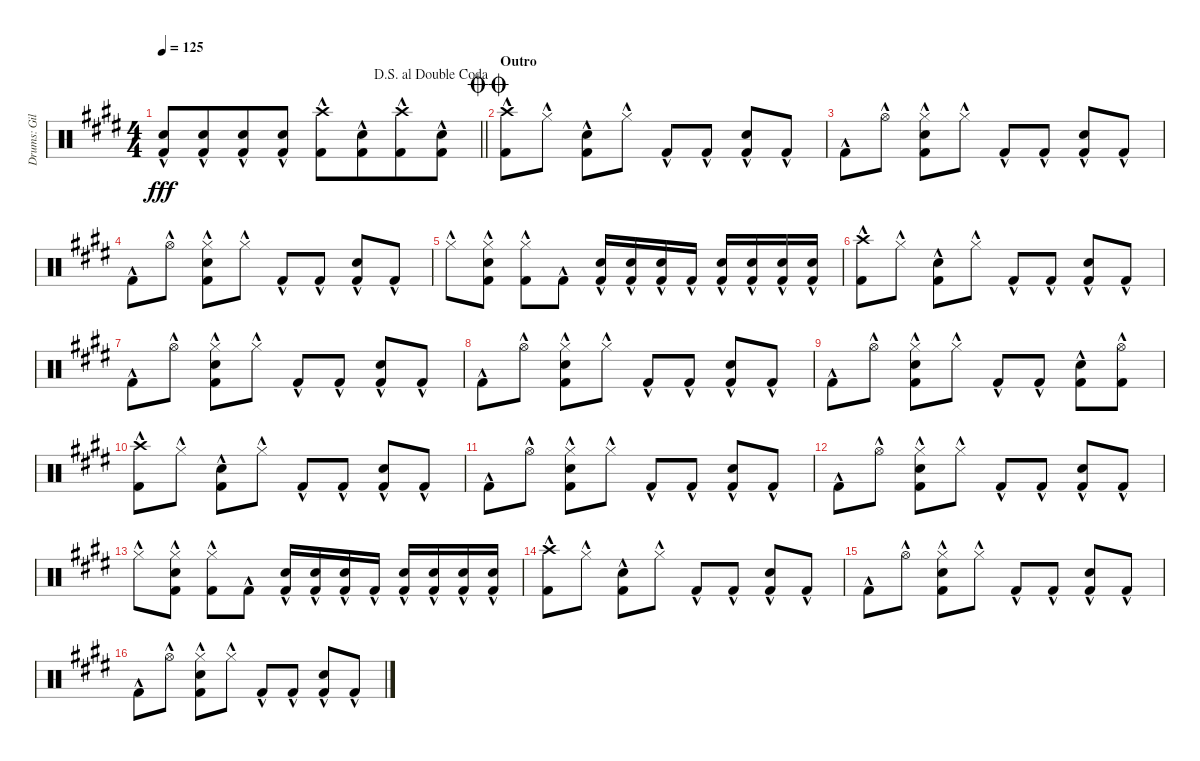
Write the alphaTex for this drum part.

\track ("Drums: Gil" "Drums: Gil") {instrument percussion}
\staff {score}
\articulation defaults
\ts (4 4)
\jump dalsegnoaldoublecoda
\tempo 125
\clef neutral
\barLineRight lightlight
\ks e
("Snare (hit) 2"{hac} "Kick (hit) 2"{hac}).8{dy fff} ("Snare (hit) 2"{hac} "Kick (hit) 2"{hac}).8{beam merge} ("Snare (hit) 2"{hac} "Kick (hit) 2"{hac}).8 ("Snare (hit) 2"{hac} "Kick (hit) 2"{hac}).8 ("Crash high (hit)"{hac} "Kick (hit) 2"{hac}).8 ("Snare (hit) 2"{hac} "Kick (hit) 2"{hac}).8{beam merge} ("Crash high (hit)"{hac} "Kick (hit) 2"{hac}).8 ("Snare (hit) 2"{hac} "Kick (hit) 2"{hac}).8 |
\section ("" "Outro")
\jump doublecoda
("Crash high (hit)"{hac} "Kick (hit) 2"{hac}).8 "Hi-Hat (closed)"{hac}.8 ("Snare (hit) 2"{hac} "Kick (hit) 2"{hac}).8 "Hi-Hat (closed)"{hac}.8 "Kick (hit) 2"{hac}.8 "Kick (hit) 2"{hac}.8 ("Snare (hit) 2"{hac} "Kick (hit) 2"{hac}).8 "Kick (hit) 2"{hac}.8 |
"Kick (hit) 2"{hac}.8 "Hi-Hat (open)"{hac}.8 ("Hi-Hat (closed)"{hac} "Snare (hit) 2"{hac} "Kick (hit) 2"{hac}).8 "Hi-Hat (closed)"{hac}.8 "Kick (hit) 2"{hac}.8 "Kick (hit) 2"{hac}.8 ("Snare (hit) 2"{hac} "Kick (hit) 2"{hac}).8 "Kick (hit) 2"{hac}.8 |
"Kick (hit) 2"{hac}.8 "Hi-Hat (open)"{hac}.8 ("Hi-Hat (closed)"{hac} "Snare (hit) 2"{hac} "Kick (hit) 2"{hac}).8 "Hi-Hat (closed)"{hac}.8 "Kick (hit) 2"{hac}.8 "Kick (hit) 2"{hac}.8 ("Snare (hit) 2"{hac} "Kick (hit) 2"{hac}).8 "Kick (hit) 2"{hac}.8 |
"Hi-Hat (closed)"{hac}.8 ("Hi-Hat (closed)"{hac} "Snare (hit) 2"{hac} "Kick (hit) 2"{hac}).8 ("Hi-Hat (closed)"{hac} "Kick (hit) 2"{hac}).8 "Kick (hit) 2"{hac}.8 ("Snare (hit) 2"{hac} "Kick (hit) 2"{hac}).16 ("Snare (hit) 2"{hac} "Kick (hit) 2"{hac}).16 ("Snare (hit) 2"{hac} "Kick (hit) 2"{hac}).16 "Kick (hit) 2"{hac}.16 ("Snare (hit) 2"{hac} "Kick (hit) 2"{hac}).16 ("Snare (hit) 2"{hac} "Kick (hit) 2"{hac}).16 ("Snare (hit) 2"{hac} "Kick (hit) 2"{hac}).16 ("Snare (hit) 2"{hac} "Kick (hit) 2"{hac}).16 |
("Crash high (hit)"{hac} "Kick (hit) 2"{hac}).8 "Hi-Hat (closed)"{hac}.8 ("Snare (hit) 2"{hac} "Kick (hit) 2"{hac}).8 "Hi-Hat (closed)"{hac}.8 "Kick (hit) 2"{hac}.8 "Kick (hit) 2"{hac}.8 ("Snare (hit) 2"{hac} "Kick (hit) 2"{hac}).8 "Kick (hit) 2"{hac}.8 |
"Kick (hit) 2"{hac}.8 "Hi-Hat (open)"{hac}.8 ("Hi-Hat (closed)"{hac} "Snare (hit) 2"{hac} "Kick (hit) 2"{hac}).8 "Hi-Hat (closed)"{hac}.8 "Kick (hit) 2"{hac}.8 "Kick (hit) 2"{hac}.8 ("Snare (hit) 2"{hac} "Kick (hit) 2"{hac}).8 "Kick (hit) 2"{hac}.8 |
"Kick (hit) 2"{hac}.8 "Hi-Hat (open)"{hac}.8 ("Hi-Hat (closed)"{hac} "Snare (hit) 2"{hac} "Kick (hit) 2"{hac}).8 "Hi-Hat (closed)"{hac}.8 "Kick (hit) 2"{hac}.8 "Kick (hit) 2"{hac}.8 ("Snare (hit) 2"{hac} "Kick (hit) 2"{hac}).8 "Kick (hit) 2"{hac}.8 |
"Kick (hit) 2"{hac}.8 "Hi-Hat (open)"{hac}.8 ("Hi-Hat (closed)"{hac} "Snare (hit) 2"{hac} "Kick (hit) 2"{hac}).8 "Hi-Hat (closed)"{hac}.8 "Kick (hit) 2"{hac}.8 "Kick (hit) 2"{hac}.8 ("Snare (hit) 2"{hac} "Kick (hit) 2"{hac}).8 ("Hi-Hat (open)"{hac} "Kick (hit) 2"{hac}).8 |
("Crash high (hit)"{hac} "Kick (hit) 2"{hac}).8 "Hi-Hat (closed)"{hac}.8 ("Snare (hit) 2"{hac} "Kick (hit) 2"{hac}).8 "Hi-Hat (closed)"{hac}.8 "Kick (hit) 2"{hac}.8 "Kick (hit) 2"{hac}.8 ("Snare (hit) 2"{hac} "Kick (hit) 2"{hac}).8 "Kick (hit) 2"{hac}.8 |
"Kick (hit) 2"{hac}.8 "Hi-Hat (open)"{hac}.8 ("Hi-Hat (closed)"{hac} "Snare (hit) 2"{hac} "Kick (hit) 2"{hac}).8 "Hi-Hat (closed)"{hac}.8 "Kick (hit) 2"{hac}.8 "Kick (hit) 2"{hac}.8 ("Snare (hit) 2"{hac} "Kick (hit) 2"{hac}).8 "Kick (hit) 2"{hac}.8 |
"Kick (hit) 2"{hac}.8 "Hi-Hat (open)"{hac}.8 ("Hi-Hat (closed)"{hac} "Snare (hit) 2"{hac} "Kick (hit) 2"{hac}).8 "Hi-Hat (closed)"{hac}.8 "Kick (hit) 2"{hac}.8 "Kick (hit) 2"{hac}.8 ("Snare (hit) 2"{hac} "Kick (hit) 2"{hac}).8 "Kick (hit) 2"{hac}.8 |
"Hi-Hat (closed)"{hac}.8 ("Hi-Hat (closed)"{hac} "Snare (hit) 2"{hac} "Kick (hit) 2"{hac}).8 ("Hi-Hat (closed)"{hac} "Kick (hit) 2"{hac}).8 "Kick (hit) 2"{hac}.8 ("Snare (hit) 2"{hac} "Kick (hit) 2"{hac}).16 ("Snare (hit) 2"{hac} "Kick (hit) 2"{hac}).16 ("Snare (hit) 2"{hac} "Kick (hit) 2"{hac}).16 "Kick (hit) 2"{hac}.16 ("Snare (hit) 2"{hac} "Kick (hit) 2"{hac}).16 ("Snare (hit) 2"{hac} "Kick (hit) 2"{hac}).16 ("Snare (hit) 2"{hac} "Kick (hit) 2"{hac}).16 ("Snare (hit) 2"{hac} "Kick (hit) 2"{hac}).16 |
("Crash high (hit)"{hac} "Kick (hit) 2"{hac}).8 "Hi-Hat (closed)"{hac}.8 ("Snare (hit) 2"{hac} "Kick (hit) 2"{hac}).8 "Hi-Hat (closed)"{hac}.8 "Kick (hit) 2"{hac}.8 "Kick (hit) 2"{hac}.8 ("Snare (hit) 2"{hac} "Kick (hit) 2"{hac}).8 "Kick (hit) 2"{hac}.8 |
"Kick (hit) 2"{hac}.8 "Hi-Hat (open)"{hac}.8 ("Hi-Hat (closed)"{hac} "Snare (hit) 2"{hac} "Kick (hit) 2"{hac}).8 "Hi-Hat (closed)"{hac}.8 "Kick (hit) 2"{hac}.8 "Kick (hit) 2"{hac}.8 ("Snare (hit) 2"{hac} "Kick (hit) 2"{hac}).8 "Kick (hit) 2"{hac}.8 |
"Kick (hit) 2"{hac}.8 "Hi-Hat (open)"{hac}.8 ("Hi-Hat (closed)"{hac} "Snare (hit) 2"{hac} "Kick (hit) 2"{hac}).8 "Hi-Hat (closed)"{hac}.8 "Kick (hit) 2"{hac}.8 "Kick (hit) 2"{hac}.8 ("Snare (hit) 2"{hac} "Kick (hit) 2"{hac}).8 "Kick (hit) 2"{hac}.8
